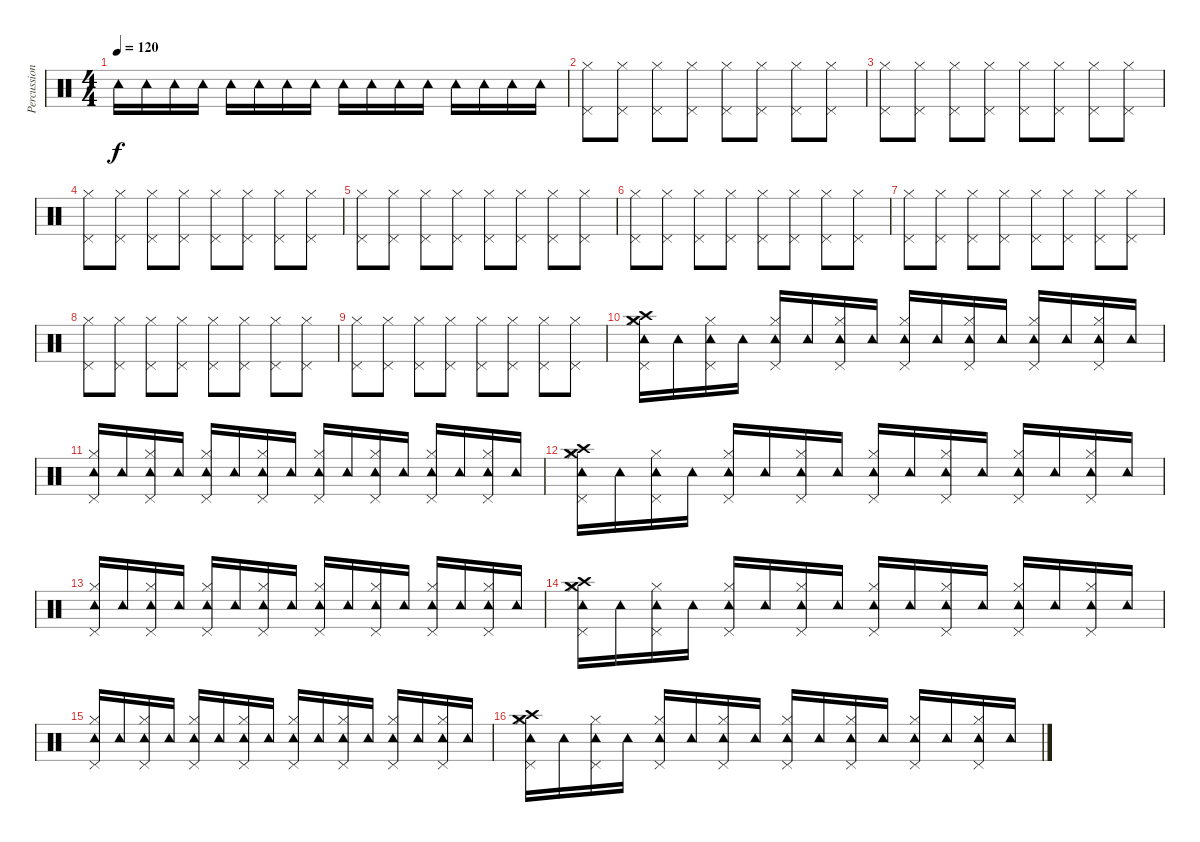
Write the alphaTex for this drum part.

\track ("Percussion" "Percussion") {instrument percussion}
\staff {score}
\articulation defaults
\ts (4 4)
\tempo 120
\clef neutral
\ks c "Tambourine (hit)".16{dy f} "Tambourine (hit)".16 "Tambourine (hit)".16 "Tambourine (hit)".16 "Tambourine (hit)".16 "Tambourine (hit)".16 "Tambourine (hit)".16 "Tambourine (hit)".16 "Tambourine (hit)".16 "Tambourine (hit)".16 "Tambourine (hit)".16 "Tambourine (hit)".16 "Tambourine (hit)".16 "Tambourine (hit)".16 "Tambourine (hit)".16 "Tambourine (hit)".16
|
("Hi-Hat (closed)" "Pedal Hi-Hat (hit)").8 ("Hi-Hat (closed)" "Pedal Hi-Hat (hit)").8 ("Hi-Hat (closed)" "Pedal Hi-Hat (hit)").8 ("Hi-Hat (closed)" "Pedal Hi-Hat (hit)").8 ("Hi-Hat (closed)" "Pedal Hi-Hat (hit)").8 ("Hi-Hat (closed)" "Pedal Hi-Hat (hit)").8 ("Hi-Hat (closed)" "Pedal Hi-Hat (hit)").8 ("Hi-Hat (closed)" "Pedal Hi-Hat (hit)").8 |
("Hi-Hat (closed)" "Pedal Hi-Hat (hit)").8 ("Hi-Hat (closed)" "Pedal Hi-Hat (hit)").8 ("Hi-Hat (closed)" "Pedal Hi-Hat (hit)").8 ("Hi-Hat (closed)" "Pedal Hi-Hat (hit)").8 ("Hi-Hat (closed)" "Pedal Hi-Hat (hit)").8 ("Hi-Hat (closed)" "Pedal Hi-Hat (hit)").8 ("Hi-Hat (closed)" "Pedal Hi-Hat (hit)").8 ("Hi-Hat (closed)" "Pedal Hi-Hat (hit)").8 |
("Hi-Hat (closed)" "Pedal Hi-Hat (hit)").8 ("Hi-Hat (closed)" "Pedal Hi-Hat (hit)").8 ("Hi-Hat (closed)" "Pedal Hi-Hat (hit)").8 ("Hi-Hat (closed)" "Pedal Hi-Hat (hit)").8 ("Hi-Hat (closed)" "Pedal Hi-Hat (hit)").8 ("Hi-Hat (closed)" "Pedal Hi-Hat (hit)").8 ("Hi-Hat (closed)" "Pedal Hi-Hat (hit)").8 ("Hi-Hat (closed)" "Pedal Hi-Hat (hit)").8 |
("Hi-Hat (closed)" "Pedal Hi-Hat (hit)").8 ("Hi-Hat (closed)" "Pedal Hi-Hat (hit)").8 ("Hi-Hat (closed)" "Pedal Hi-Hat (hit)").8 ("Hi-Hat (closed)" "Pedal Hi-Hat (hit)").8 ("Hi-Hat (closed)" "Pedal Hi-Hat (hit)").8 ("Hi-Hat (closed)" "Pedal Hi-Hat (hit)").8 ("Hi-Hat (closed)" "Pedal Hi-Hat (hit)").8 ("Hi-Hat (closed)" "Pedal Hi-Hat (hit)").8 |
("Hi-Hat (closed)" "Pedal Hi-Hat (hit)").8 ("Hi-Hat (closed)" "Pedal Hi-Hat (hit)").8 ("Hi-Hat (closed)" "Pedal Hi-Hat (hit)").8 ("Hi-Hat (closed)" "Pedal Hi-Hat (hit)").8 ("Hi-Hat (closed)" "Pedal Hi-Hat (hit)").8 ("Hi-Hat (closed)" "Pedal Hi-Hat (hit)").8 ("Hi-Hat (closed)" "Pedal Hi-Hat (hit)").8 ("Hi-Hat (closed)" "Pedal Hi-Hat (hit)").8 |
("Hi-Hat (closed)" "Pedal Hi-Hat (hit)").8 ("Hi-Hat (closed)" "Pedal Hi-Hat (hit)").8 ("Hi-Hat (closed)" "Pedal Hi-Hat (hit)").8 ("Hi-Hat (closed)" "Pedal Hi-Hat (hit)").8 ("Hi-Hat (closed)" "Pedal Hi-Hat (hit)").8 ("Hi-Hat (closed)" "Pedal Hi-Hat (hit)").8 ("Hi-Hat (closed)" "Pedal Hi-Hat (hit)").8 ("Hi-Hat (closed)" "Pedal Hi-Hat (hit)").8 |
("Hi-Hat (closed)" "Pedal Hi-Hat (hit)").8 ("Hi-Hat (closed)" "Pedal Hi-Hat (hit)").8 ("Hi-Hat (closed)" "Pedal Hi-Hat (hit)").8 ("Hi-Hat (closed)" "Pedal Hi-Hat (hit)").8 ("Hi-Hat (closed)" "Pedal Hi-Hat (hit)").8 ("Hi-Hat (closed)" "Pedal Hi-Hat (hit)").8 ("Hi-Hat (closed)" "Pedal Hi-Hat (hit)").8 ("Hi-Hat (closed)" "Pedal Hi-Hat (hit)").8 |
("Hi-Hat (closed)" "Pedal Hi-Hat (hit)").8 ("Hi-Hat (closed)" "Pedal Hi-Hat (hit)").8 ("Hi-Hat (closed)" "Pedal Hi-Hat (hit)").8 ("Hi-Hat (closed)" "Pedal Hi-Hat (hit)").8 ("Hi-Hat (closed)" "Pedal Hi-Hat (hit)").8 ("Hi-Hat (closed)" "Pedal Hi-Hat (hit)").8 ("Hi-Hat (closed)" "Pedal Hi-Hat (hit)").8 ("Hi-Hat (closed)" "Pedal Hi-Hat (hit)").8 |
("Hi-Hat (closed)" "Pedal Hi-Hat (hit)" "Tambourine (hit)" "Crash medium (hit)" "Crash high (hit)").16 "Tambourine (hit)".16 ("Hi-Hat (closed)" "Pedal Hi-Hat (hit)" "Tambourine (hit)").16 "Tambourine (hit)".16 ("Hi-Hat (closed)" "Pedal Hi-Hat (hit)" "Tambourine (hit)").16 "Tambourine (hit)".16 ("Hi-Hat (closed)" "Pedal Hi-Hat (hit)" "Tambourine (hit)").16 "Tambourine (hit)".16 ("Hi-Hat (closed)" "Pedal Hi-Hat (hit)" "Tambourine (hit)").16 "Tambourine (hit)".16 ("Hi-Hat (closed)" "Pedal Hi-Hat (hit)" "Tambourine (hit)").16 "Tambourine (hit)".16 ("Hi-Hat (closed)" "Pedal Hi-Hat (hit)" "Tambourine (hit)").16 "Tambourine (hit)".16 ("Hi-Hat (closed)" "Pedal Hi-Hat (hit)" "Tambourine (hit)").16 "Tambourine (hit)".16 |
("Hi-Hat (closed)" "Pedal Hi-Hat (hit)" "Tambourine (hit)").16 "Tambourine (hit)".16 ("Hi-Hat (closed)" "Pedal Hi-Hat (hit)" "Tambourine (hit)").16 "Tambourine (hit)".16 ("Hi-Hat (closed)" "Pedal Hi-Hat (hit)" "Tambourine (hit)").16 "Tambourine (hit)".16 ("Hi-Hat (closed)" "Pedal Hi-Hat (hit)" "Tambourine (hit)").16 "Tambourine (hit)".16 ("Hi-Hat (closed)" "Pedal Hi-Hat (hit)" "Tambourine (hit)").16 "Tambourine (hit)".16 ("Hi-Hat (closed)" "Pedal Hi-Hat (hit)" "Tambourine (hit)").16 "Tambourine (hit)".16 ("Hi-Hat (closed)" "Pedal Hi-Hat (hit)" "Tambourine (hit)").16 "Tambourine (hit)".16 ("Hi-Hat (closed)" "Pedal Hi-Hat (hit)" "Tambourine (hit)").16 "Tambourine (hit)".16 |
("Hi-Hat (closed)" "Pedal Hi-Hat (hit)" "Tambourine (hit)" "Crash medium (hit)" "Crash high (hit)").16 "Tambourine (hit)".16 ("Hi-Hat (closed)" "Pedal Hi-Hat (hit)" "Tambourine (hit)").16 "Tambourine (hit)".16 ("Hi-Hat (closed)" "Pedal Hi-Hat (hit)" "Tambourine (hit)").16 "Tambourine (hit)".16 ("Hi-Hat (closed)" "Pedal Hi-Hat (hit)" "Tambourine (hit)").16 "Tambourine (hit)".16 ("Hi-Hat (closed)" "Pedal Hi-Hat (hit)" "Tambourine (hit)").16 "Tambourine (hit)".16 ("Hi-Hat (closed)" "Pedal Hi-Hat (hit)" "Tambourine (hit)").16 "Tambourine (hit)".16 ("Hi-Hat (closed)" "Pedal Hi-Hat (hit)" "Tambourine (hit)").16 "Tambourine (hit)".16 ("Hi-Hat (closed)" "Pedal Hi-Hat (hit)" "Tambourine (hit)").16 "Tambourine (hit)".16 |
("Hi-Hat (closed)" "Pedal Hi-Hat (hit)" "Tambourine (hit)").16 "Tambourine (hit)".16 ("Hi-Hat (closed)" "Pedal Hi-Hat (hit)" "Tambourine (hit)").16 "Tambourine (hit)".16 ("Hi-Hat (closed)" "Pedal Hi-Hat (hit)" "Tambourine (hit)").16 "Tambourine (hit)".16 ("Hi-Hat (closed)" "Pedal Hi-Hat (hit)" "Tambourine (hit)").16 "Tambourine (hit)".16 ("Hi-Hat (closed)" "Pedal Hi-Hat (hit)" "Tambourine (hit)").16 "Tambourine (hit)".16 ("Hi-Hat (closed)" "Pedal Hi-Hat (hit)" "Tambourine (hit)").16 "Tambourine (hit)".16 ("Hi-Hat (closed)" "Pedal Hi-Hat (hit)" "Tambourine (hit)").16 "Tambourine (hit)".16 ("Hi-Hat (closed)" "Pedal Hi-Hat (hit)" "Tambourine (hit)").16 "Tambourine (hit)".16 |
("Hi-Hat (closed)" "Pedal Hi-Hat (hit)" "Tambourine (hit)" "Crash medium (hit)" "Crash high (hit)").16 "Tambourine (hit)".16 ("Hi-Hat (closed)" "Pedal Hi-Hat (hit)" "Tambourine (hit)").16 "Tambourine (hit)".16 ("Hi-Hat (closed)" "Pedal Hi-Hat (hit)" "Tambourine (hit)").16 "Tambourine (hit)".16 ("Hi-Hat (closed)" "Pedal Hi-Hat (hit)" "Tambourine (hit)").16 "Tambourine (hit)".16 ("Hi-Hat (closed)" "Pedal Hi-Hat (hit)" "Tambourine (hit)").16 "Tambourine (hit)".16 ("Hi-Hat (closed)" "Pedal Hi-Hat (hit)" "Tambourine (hit)").16 "Tambourine (hit)".16 ("Hi-Hat (closed)" "Pedal Hi-Hat (hit)" "Tambourine (hit)").16 "Tambourine (hit)".16 ("Hi-Hat (closed)" "Pedal Hi-Hat (hit)" "Tambourine (hit)").16 "Tambourine (hit)".16 |
("Hi-Hat (closed)" "Pedal Hi-Hat (hit)" "Tambourine (hit)").16 "Tambourine (hit)".16 ("Hi-Hat (closed)" "Pedal Hi-Hat (hit)" "Tambourine (hit)").16 "Tambourine (hit)".16 ("Hi-Hat (closed)" "Pedal Hi-Hat (hit)" "Tambourine (hit)").16 "Tambourine (hit)".16 ("Hi-Hat (closed)" "Pedal Hi-Hat (hit)" "Tambourine (hit)").16 "Tambourine (hit)".16 ("Hi-Hat (closed)" "Pedal Hi-Hat (hit)" "Tambourine (hit)").16 "Tambourine (hit)".16 ("Hi-Hat (closed)" "Pedal Hi-Hat (hit)" "Tambourine (hit)").16 "Tambourine (hit)".16 ("Hi-Hat (closed)" "Pedal Hi-Hat (hit)" "Tambourine (hit)").16 "Tambourine (hit)".16 ("Hi-Hat (closed)" "Pedal Hi-Hat (hit)" "Tambourine (hit)").16 "Tambourine (hit)".16 |
("Hi-Hat (closed)" "Pedal Hi-Hat (hit)" "Tambourine (hit)" "Crash medium (hit)" "Crash high (hit)").16 "Tambourine (hit)".16 ("Hi-Hat (closed)" "Pedal Hi-Hat (hit)" "Tambourine (hit)").16 "Tambourine (hit)".16 ("Hi-Hat (closed)" "Pedal Hi-Hat (hit)" "Tambourine (hit)").16 "Tambourine (hit)".16 ("Hi-Hat (closed)" "Pedal Hi-Hat (hit)" "Tambourine (hit)").16 "Tambourine (hit)".16 ("Hi-Hat (closed)" "Pedal Hi-Hat (hit)" "Tambourine (hit)").16 "Tambourine (hit)".16 ("Hi-Hat (closed)" "Pedal Hi-Hat (hit)" "Tambourine (hit)").16 "Tambourine (hit)".16 ("Hi-Hat (closed)" "Pedal Hi-Hat (hit)" "Tambourine (hit)").16 "Tambourine (hit)".16 ("Hi-Hat (closed)" "Pedal Hi-Hat (hit)" "Tambourine (hit)").16 "Tambourine (hit)".16
